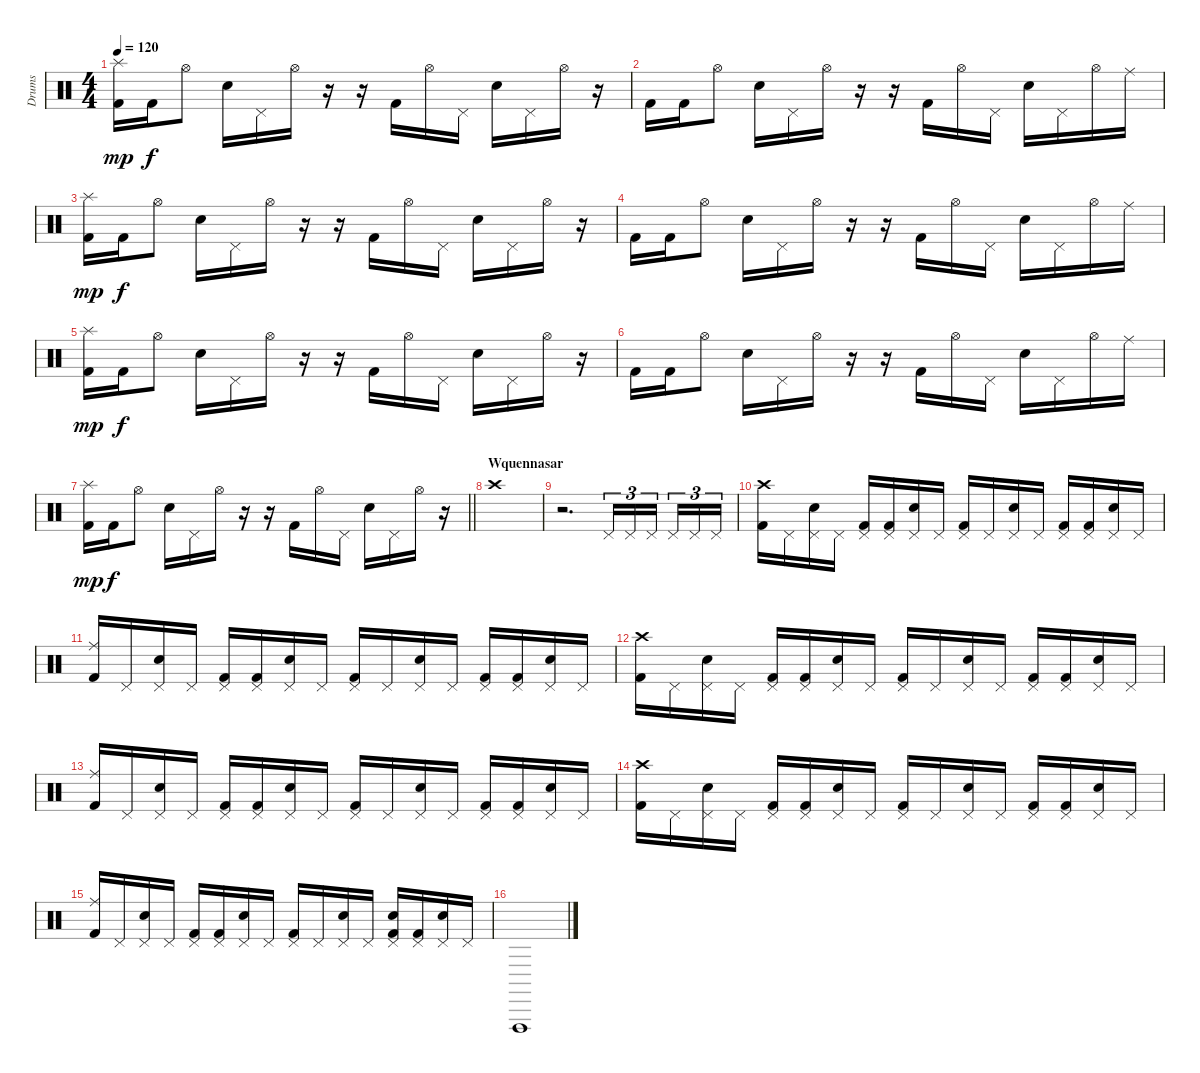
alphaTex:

\track ("Drums" "Drums") {instrument percussion}
\staff {score}
\articulation defaults
\ts (4 4)
\tempo 120
\clef neutral
\ks c
("Splash (hit)" "Kick (hit) 2").16{dy mp} "Kick (hit) 2".16{dy f} "Hi-Hat (open)".8 "Electric Snare (hit)".16 "Pedal Hi-Hat (hit)".16 "Hi-Hat (open)".16 r.16 r.16 "Kick (hit) 2".16 "Hi-Hat (open)".16 "Pedal Hi-Hat (hit)".16 "Electric Snare (hit)".16 "Pedal Hi-Hat (hit)".16 "Hi-Hat (open)".16 r.16 |
"Kick (hit) 2".16 "Kick (hit) 2".16 "Hi-Hat (open)".8 "Electric Snare (hit)".16 "Pedal Hi-Hat (hit)".16 "Hi-Hat (open)".16 r.16 r.16 "Kick (hit) 2".16 "Hi-Hat (open)".16 "Pedal Hi-Hat (hit)".16 "Electric Snare (hit)".16 "Pedal Hi-Hat (hit)".16 "Hi-Hat (open)".16 "Ride (middle)".16 |
("Splash (hit)" "Kick (hit) 2").16{dy mp} "Kick (hit) 2".16{dy f} "Hi-Hat (open)".8 "Electric Snare (hit)".16 "Pedal Hi-Hat (hit)".16 "Hi-Hat (open)".16 r.16 r.16 "Kick (hit) 2".16 "Hi-Hat (open)".16 "Pedal Hi-Hat (hit)".16 "Electric Snare (hit)".16 "Pedal Hi-Hat (hit)".16 "Hi-Hat (open)".16 r.16 |
"Kick (hit) 2".16 "Kick (hit) 2".16 "Hi-Hat (open)".8 "Electric Snare (hit)".16 "Pedal Hi-Hat (hit)".16 "Hi-Hat (open)".16 r.16 r.16 "Kick (hit) 2".16 "Hi-Hat (open)".16 "Pedal Hi-Hat (hit)".16 "Electric Snare (hit)".16 "Pedal Hi-Hat (hit)".16 "Hi-Hat (open)".16 "Ride (middle)".16 |
("Splash (hit)" "Kick (hit) 2").16{dy mp} "Kick (hit) 2".16{dy f} "Hi-Hat (open)".8 "Electric Snare (hit)".16 "Pedal Hi-Hat (hit)".16 "Hi-Hat (open)".16 r.16 r.16 "Kick (hit) 2".16 "Hi-Hat (open)".16 "Pedal Hi-Hat (hit)".16 "Electric Snare (hit)".16 "Pedal Hi-Hat (hit)".16 "Hi-Hat (open)".16 r.16 |
"Kick (hit) 2".16 "Kick (hit) 2".16 "Hi-Hat (open)".8 "Electric Snare (hit)".16 "Pedal Hi-Hat (hit)".16 "Hi-Hat (open)".16 r.16 r.16 "Kick (hit) 2".16 "Hi-Hat (open)".16 "Pedal Hi-Hat (hit)".16 "Electric Snare (hit)".16 "Pedal Hi-Hat (hit)".16 "Hi-Hat (open)".16 "Ride (middle)".16 |
\barLineRight lightlight
("Splash (hit)" "Kick (hit) 2").16{dy mp} "Kick (hit) 2".16{dy f} "Hi-Hat (open)".8 "Electric Snare (hit)".16 "Pedal Hi-Hat (hit)".16 "Hi-Hat (open)".16 r.16 r.16 "Kick (hit) 2".16 "Hi-Hat (open)".16 "Pedal Hi-Hat (hit)".16 "Electric Snare (hit)".16 "Pedal Hi-Hat (hit)".16 "Hi-Hat (open)".16 r.16 |
\section ("" "Wquennasar")
"Crash high (hit)".1 |
r.2{d} "Pedal Hi-Hat (hit)".16{tu (3 2)} "Pedal Hi-Hat (hit)".16{tu (3 2)} "Pedal Hi-Hat (hit)".16{tu (3 2) beam splitsecondary} "Pedal Hi-Hat (hit)".16{tu (3 2)} "Pedal Hi-Hat (hit)".16{tu (3 2)} "Pedal Hi-Hat (hit)".16{tu (3 2)} |
("Crash high (hit)" "Kick (hit) 2").16 "Pedal Hi-Hat (hit)".16 ("Pedal Hi-Hat (hit)" "Snare (hit) 2").16 "Pedal Hi-Hat (hit)".16 ("Pedal Hi-Hat (hit)" "Kick (hit) 2").16 ("Pedal Hi-Hat (hit)" "Kick (hit) 2").16 ("Pedal Hi-Hat (hit)" "Snare (hit) 2").16 "Pedal Hi-Hat (hit)".16 ("Pedal Hi-Hat (hit)" "Kick (hit) 2").16 "Pedal Hi-Hat (hit)".16 ("Pedal Hi-Hat (hit)" "Snare (hit) 2").16 "Pedal Hi-Hat (hit)".16 ("Pedal Hi-Hat (hit)" "Kick (hit) 2").16 ("Pedal Hi-Hat (hit)" "Kick (hit) 2").16 ("Pedal Hi-Hat (hit)" "Snare (hit) 2").16 "Pedal Hi-Hat (hit)".16 |
("Ride (middle)" "Kick (hit) 2").16 "Pedal Hi-Hat (hit)".16 ("Pedal Hi-Hat (hit)" "Snare (hit) 2").16 "Pedal Hi-Hat (hit)".16 ("Pedal Hi-Hat (hit)" "Kick (hit) 2").16 ("Pedal Hi-Hat (hit)" "Kick (hit) 2").16 ("Pedal Hi-Hat (hit)" "Snare (hit) 2").16 "Pedal Hi-Hat (hit)".16 ("Pedal Hi-Hat (hit)" "Kick (hit) 2").16 "Pedal Hi-Hat (hit)".16 ("Pedal Hi-Hat (hit)" "Snare (hit) 2").16 "Pedal Hi-Hat (hit)".16 ("Pedal Hi-Hat (hit)" "Kick (hit) 2").16 ("Pedal Hi-Hat (hit)" "Kick (hit) 2").16 ("Pedal Hi-Hat (hit)" "Snare (hit) 2").16 "Pedal Hi-Hat (hit)".16 |
("Crash high (hit)" "Kick (hit) 2").16 "Pedal Hi-Hat (hit)".16 ("Pedal Hi-Hat (hit)" "Snare (hit) 2").16 "Pedal Hi-Hat (hit)".16 ("Pedal Hi-Hat (hit)" "Kick (hit) 2").16 ("Pedal Hi-Hat (hit)" "Kick (hit) 2").16 ("Pedal Hi-Hat (hit)" "Snare (hit) 2").16 "Pedal Hi-Hat (hit)".16 ("Pedal Hi-Hat (hit)" "Kick (hit) 2").16 "Pedal Hi-Hat (hit)".16 ("Pedal Hi-Hat (hit)" "Snare (hit) 2").16 "Pedal Hi-Hat (hit)".16 ("Pedal Hi-Hat (hit)" "Kick (hit) 2").16 ("Pedal Hi-Hat (hit)" "Kick (hit) 2").16 ("Pedal Hi-Hat (hit)" "Snare (hit) 2").16 "Pedal Hi-Hat (hit)".16 |
("Ride (middle)" "Kick (hit) 2").16 "Pedal Hi-Hat (hit)".16 ("Pedal Hi-Hat (hit)" "Snare (hit) 2").16 "Pedal Hi-Hat (hit)".16 ("Pedal Hi-Hat (hit)" "Kick (hit) 2").16 ("Pedal Hi-Hat (hit)" "Kick (hit) 2").16 ("Pedal Hi-Hat (hit)" "Snare (hit) 2").16 "Pedal Hi-Hat (hit)".16 ("Pedal Hi-Hat (hit)" "Kick (hit) 2").16 "Pedal Hi-Hat (hit)".16 ("Pedal Hi-Hat (hit)" "Snare (hit) 2").16 "Pedal Hi-Hat (hit)".16 ("Pedal Hi-Hat (hit)" "Kick (hit) 2").16 ("Pedal Hi-Hat (hit)" "Kick (hit) 2").16 ("Pedal Hi-Hat (hit)" "Snare (hit) 2").16 "Pedal Hi-Hat (hit)".16 |
("Crash high (hit)" "Kick (hit) 2").16 "Pedal Hi-Hat (hit)".16 ("Pedal Hi-Hat (hit)" "Snare (hit) 2").16 "Pedal Hi-Hat (hit)".16 ("Pedal Hi-Hat (hit)" "Kick (hit) 2").16 ("Pedal Hi-Hat (hit)" "Kick (hit) 2").16 ("Pedal Hi-Hat (hit)" "Snare (hit) 2").16 "Pedal Hi-Hat (hit)".16 ("Pedal Hi-Hat (hit)" "Kick (hit) 2").16 "Pedal Hi-Hat (hit)".16 ("Pedal Hi-Hat (hit)" "Snare (hit) 2").16 "Pedal Hi-Hat (hit)".16 ("Pedal Hi-Hat (hit)" "Kick (hit) 2").16 ("Pedal Hi-Hat (hit)" "Kick (hit) 2").16 ("Pedal Hi-Hat (hit)" "Snare (hit) 2").16 "Pedal Hi-Hat (hit)".16 |
("Ride (middle)" "Kick (hit) 2").16 "Pedal Hi-Hat (hit)".16 ("Pedal Hi-Hat (hit)" "Snare (hit) 2").16 "Pedal Hi-Hat (hit)".16 ("Pedal Hi-Hat (hit)" "Kick (hit) 2").16 ("Pedal Hi-Hat (hit)" "Kick (hit) 2").16 ("Pedal Hi-Hat (hit)" "Snare (hit) 2").16 "Pedal Hi-Hat (hit)".16 ("Pedal Hi-Hat (hit)" "Kick (hit) 2").16 "Pedal Hi-Hat (hit)".16 ("Pedal Hi-Hat (hit)" "Snare (hit) 2").16 "Pedal Hi-Hat (hit)".16 ("Pedal Hi-Hat (hit)" "Snare (hit) 2" "Kick (hit) 2").16 ("Pedal Hi-Hat (hit)" "Kick (hit) 2").16 ("Pedal Hi-Hat (hit)" "Snare (hit) 2").16 "Pedal Hi-Hat (hit)".16 |
"Vibraslap (hit)".1
